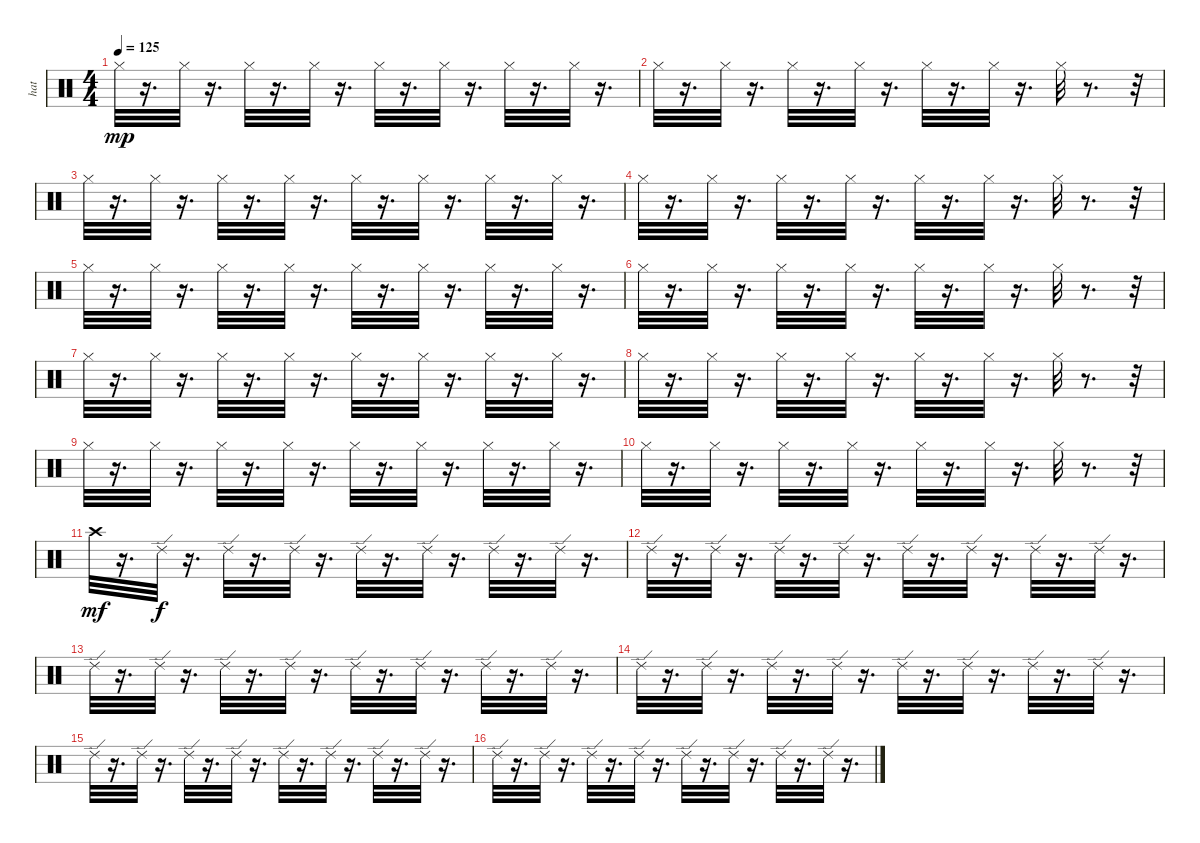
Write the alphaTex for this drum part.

\track ("hat" "hat") {instrument percussion}
\staff {score}
\articulation defaults
\ts (4 4)
\tempo 125
\clef neutral
\ks c "Hi-Hat (closed)".32{dy mp}
r.16{d} "Hi-Hat (closed)".32 r.16{d} "Hi-Hat (closed)".32 r.16{d} "Hi-Hat (closed)".32 r.16{d} "Hi-Hat (closed)".32 r.16{d} "Hi-Hat (closed)".32 r.16{d} "Hi-Hat (closed)".32 r.16{d} "Hi-Hat (closed)".32 r.16{d} |
"Hi-Hat (closed)".32 r.16{d} "Hi-Hat (closed)".32 r.16{d} "Hi-Hat (closed)".32 r.16{d} "Hi-Hat (closed)".32 r.16{d} "Hi-Hat (closed)".32 r.16{d} "Hi-Hat (closed)".32 r.16{d} "Hi-Hat (closed)".32 r.8{d} r.32 |
"Hi-Hat (closed)".32 r.16{d} "Hi-Hat (closed)".32 r.16{d} "Hi-Hat (closed)".32 r.16{d} "Hi-Hat (closed)".32 r.16{d} "Hi-Hat (closed)".32 r.16{d} "Hi-Hat (closed)".32 r.16{d} "Hi-Hat (closed)".32 r.16{d} "Hi-Hat (closed)".32 r.16{d} |
"Hi-Hat (closed)".32 r.16{d} "Hi-Hat (closed)".32 r.16{d} "Hi-Hat (closed)".32 r.16{d} "Hi-Hat (closed)".32 r.16{d} "Hi-Hat (closed)".32 r.16{d} "Hi-Hat (closed)".32 r.16{d} "Hi-Hat (closed)".32 r.8{d} r.32 |
"Hi-Hat (closed)".32 r.16{d} "Hi-Hat (closed)".32 r.16{d} "Hi-Hat (closed)".32 r.16{d} "Hi-Hat (closed)".32 r.16{d} "Hi-Hat (closed)".32 r.16{d} "Hi-Hat (closed)".32 r.16{d} "Hi-Hat (closed)".32 r.16{d} "Hi-Hat (closed)".32 r.16{d} |
"Hi-Hat (closed)".32 r.16{d} "Hi-Hat (closed)".32 r.16{d} "Hi-Hat (closed)".32 r.16{d} "Hi-Hat (closed)".32 r.16{d} "Hi-Hat (closed)".32 r.16{d} "Hi-Hat (closed)".32 r.16{d} "Hi-Hat (closed)".32 r.8{d} r.32 |
"Hi-Hat (closed)".32 r.16{d} "Hi-Hat (closed)".32 r.16{d} "Hi-Hat (closed)".32 r.16{d} "Hi-Hat (closed)".32 r.16{d} "Hi-Hat (closed)".32 r.16{d} "Hi-Hat (closed)".32 r.16{d} "Hi-Hat (closed)".32 r.16{d} "Hi-Hat (closed)".32 r.16{d} |
"Hi-Hat (closed)".32 r.16{d} "Hi-Hat (closed)".32 r.16{d} "Hi-Hat (closed)".32 r.16{d} "Hi-Hat (closed)".32 r.16{d} "Hi-Hat (closed)".32 r.16{d} "Hi-Hat (closed)".32 r.16{d} "Hi-Hat (closed)".32 r.8{d} r.32 |
"Hi-Hat (closed)".32 r.16{d} "Hi-Hat (closed)".32 r.16{d} "Hi-Hat (closed)".32 r.16{d} "Hi-Hat (closed)".32 r.16{d} "Hi-Hat (closed)".32 r.16{d} "Hi-Hat (closed)".32 r.16{d} "Hi-Hat (closed)".32 r.16{d} "Hi-Hat (closed)".32 r.16{d} |
"Hi-Hat (closed)".32 r.16{d} "Hi-Hat (closed)".32 r.16{d} "Hi-Hat (closed)".32 r.16{d} "Hi-Hat (closed)".32 r.16{d} "Hi-Hat (closed)".32 r.16{d} "Hi-Hat (closed)".32 r.16{d} "Hi-Hat (closed)".32 r.8{d} r.32 |
"Crash high (hit)".32{dy mf} r.16{d} "Ride (edge) 2".32{dy f} r.16{d} "Ride (edge) 2".32 r.16{d} "Ride (edge) 2".32 r.16{d} "Ride (edge) 2".32 r.16{d} "Ride (edge) 2".32 r.16{d} "Ride (edge) 2".32 r.16{d} "Ride (edge) 2".32 r.16{d} |
"Ride (edge) 2".32 r.16{d} "Ride (edge) 2".32 r.16{d} "Ride (edge) 2".32 r.16{d} "Ride (edge) 2".32 r.16{d} "Ride (edge) 2".32 r.16{d} "Ride (edge) 2".32 r.16{d} "Ride (edge) 2".32 r.16{d} "Ride (edge) 2".32 r.16{d} |
"Ride (edge) 2".32 r.16{d} "Ride (edge) 2".32 r.16{d} "Ride (edge) 2".32 r.16{d} "Ride (edge) 2".32 r.16{d} "Ride (edge) 2".32 r.16{d} "Ride (edge) 2".32 r.16{d} "Ride (edge) 2".32 r.16{d} "Ride (edge) 2".32 r.16{d} |
"Ride (edge) 2".32 r.16{d} "Ride (edge) 2".32 r.16{d} "Ride (edge) 2".32 r.16{d} "Ride (edge) 2".32 r.16{d} "Ride (edge) 2".32 r.16{d} "Ride (edge) 2".32 r.16{d} "Ride (edge) 2".32 r.16{d} "Ride (edge) 2".32 r.16{d} |
"Ride (edge) 2".32 r.16{d} "Ride (edge) 2".32 r.16{d} "Ride (edge) 2".32 r.16{d} "Ride (edge) 2".32 r.16{d} "Ride (edge) 2".32 r.16{d} "Ride (edge) 2".32 r.16{d} "Ride (edge) 2".32 r.16{d} "Ride (edge) 2".32 r.16{d} |
"Ride (edge) 2".32 r.16{d} "Ride (edge) 2".32 r.16{d} "Ride (edge) 2".32 r.16{d} "Ride (edge) 2".32 r.16{d} "Ride (edge) 2".32 r.16{d} "Ride (edge) 2".32 r.16{d} "Ride (edge) 2".32 r.16{d} "Ride (edge) 2".32 r.16{d}
